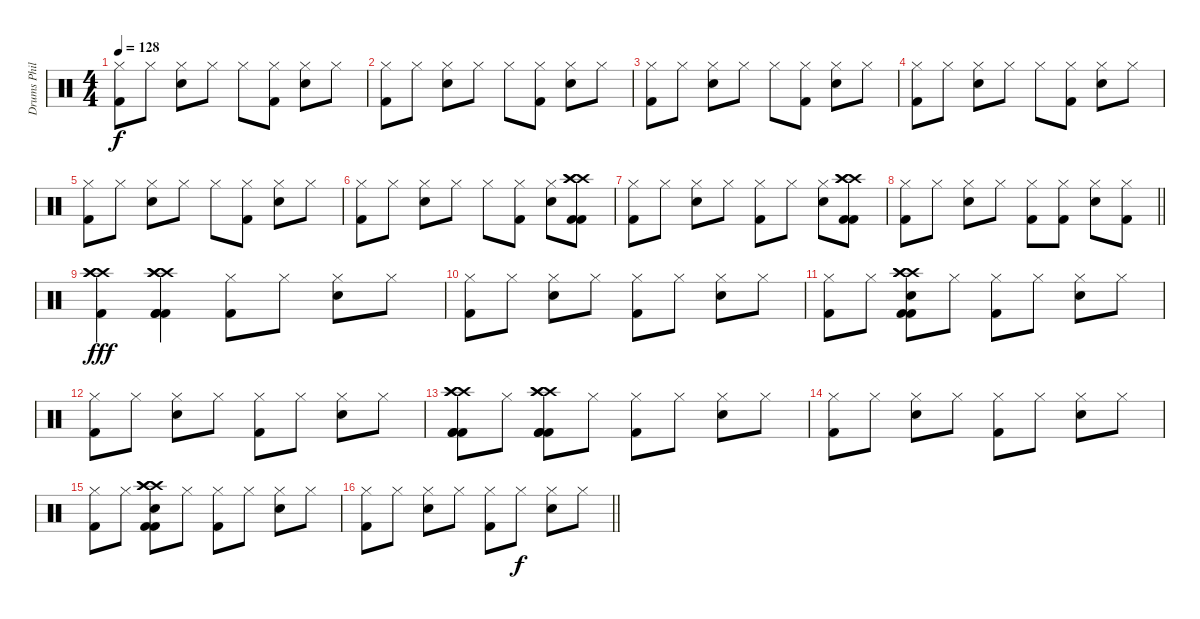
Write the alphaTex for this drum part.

\track ("Drums Phil Rudd" "Drums Phil") {instrument percussion}
\staff {score}
\articulation defaults
\ts (4 4)
\tempo 128
\clef neutral
\ks c
("Hi-Hat (closed)" "Kick (hit) 2").8{dy f} "Hi-Hat (closed)".8 ("Hi-Hat (closed)" "Electric Snare (hit)").8 "Hi-Hat (closed)".8 "Hi-Hat (closed)".8 ("Hi-Hat (closed)" "Kick (hit) 2").8 ("Hi-Hat (closed)" "Electric Snare (hit)").8 "Hi-Hat (closed)".8 |
("Hi-Hat (closed)" "Kick (hit) 2").8 "Hi-Hat (closed)".8 ("Hi-Hat (closed)" "Electric Snare (hit)").8 "Hi-Hat (closed)".8 "Hi-Hat (closed)".8 ("Hi-Hat (closed)" "Kick (hit) 2").8 ("Hi-Hat (closed)" "Electric Snare (hit)").8 "Hi-Hat (closed)".8 |
("Hi-Hat (closed)" "Kick (hit) 2").8 "Hi-Hat (closed)".8 ("Hi-Hat (closed)" "Electric Snare (hit)").8 "Hi-Hat (closed)".8 "Hi-Hat (closed)".8 ("Hi-Hat (closed)" "Kick (hit) 2").8 ("Hi-Hat (closed)" "Electric Snare (hit)").8 "Hi-Hat (closed)".8 |
("Hi-Hat (closed)" "Kick (hit) 2").8 "Hi-Hat (closed)".8 ("Hi-Hat (closed)" "Electric Snare (hit)").8 "Hi-Hat (closed)".8 "Hi-Hat (closed)".8 ("Hi-Hat (closed)" "Kick (hit) 2").8 ("Hi-Hat (closed)" "Electric Snare (hit)").8 "Hi-Hat (closed)".8 |
("Hi-Hat (closed)" "Kick (hit) 2").8 "Hi-Hat (closed)".8 ("Hi-Hat (closed)" "Electric Snare (hit)").8 "Hi-Hat (closed)".8 "Hi-Hat (closed)".8 ("Hi-Hat (closed)" "Kick (hit) 2").8 ("Hi-Hat (closed)" "Electric Snare (hit)").8 "Hi-Hat (closed)".8 |
("Hi-Hat (closed)" "Kick (hit) 2").8 "Hi-Hat (closed)".8 ("Hi-Hat (closed)" "Electric Snare (hit)").8 "Hi-Hat (closed)".8 "Hi-Hat (closed)".8 ("Hi-Hat (closed)" "Kick (hit) 2").8 ("Hi-Hat (closed)" "Electric Snare (hit)").8 ("Crash high (hit)" "Crash high (hit)" "Crash high (hit)" "Kick (hit) 2" "Kick (hit) 2").8 |
("Hi-Hat (closed)" "Kick (hit) 2").8 "Hi-Hat (closed)".8 ("Hi-Hat (closed)" "Electric Snare (hit)").8 "Hi-Hat (closed)".8 ("Hi-Hat (closed)" "Kick (hit) 2").8 "Hi-Hat (closed)".8 ("Hi-Hat (closed)" "Electric Snare (hit)").8 ("Crash high (hit)" "Crash high (hit)" "Crash high (hit)" "Kick (hit) 2" "Kick (hit) 2").8 |
\barLineRight lightlight
("Hi-Hat (closed)" "Kick (hit) 2").8 "Hi-Hat (closed)".8 ("Hi-Hat (closed)" "Electric Snare (hit)").8 "Hi-Hat (closed)".8 ("Hi-Hat (closed)" "Kick (hit) 2").8 ("Hi-Hat (closed)" "Kick (hit) 2").8 ("Hi-Hat (closed)" "Electric Snare (hit)").8 ("Hi-Hat (closed)" "Kick (hit) 2").8 |
("Crash high (hit)" "Crash high (hit)" "Crash high (hit)" "Kick (hit) 2").4{dy fff} ("Crash high (hit)" "Crash high (hit)" "Crash high (hit)" "Kick (hit) 2" "Kick (hit) 2" "Kick (hit) 2").4 ("Hi-Hat (closed)" "Kick (hit) 2").8 "Hi-Hat (closed)".8 ("Hi-Hat (closed)" "Electric Snare (hit)").8 "Hi-Hat (closed)".8 |
("Hi-Hat (closed)" "Kick (hit) 2").8 "Hi-Hat (closed)".8 ("Hi-Hat (closed)" "Electric Snare (hit)").8 "Hi-Hat (closed)".8 ("Hi-Hat (closed)" "Kick (hit) 2").8 "Hi-Hat (closed)".8 ("Hi-Hat (closed)" "Electric Snare (hit)").8 "Hi-Hat (closed)".8 |
("Hi-Hat (closed)" "Kick (hit) 2").8 "Hi-Hat (closed)".8 ("Crash high (hit)" "Crash high (hit)" "Crash high (hit)" "Electric Snare (hit)" "Kick (hit) 2" "Kick (hit) 2").8 "Hi-Hat (closed)".8 ("Hi-Hat (closed)" "Kick (hit) 2").8 "Hi-Hat (closed)".8 ("Hi-Hat (closed)" "Electric Snare (hit)").8 "Hi-Hat (closed)".8 |
("Hi-Hat (closed)" "Kick (hit) 2").8 "Hi-Hat (closed)".8 ("Hi-Hat (closed)" "Electric Snare (hit)").8 "Hi-Hat (closed)".8 ("Hi-Hat (closed)" "Kick (hit) 2").8 "Hi-Hat (closed)".8 ("Hi-Hat (closed)" "Electric Snare (hit)").8 "Hi-Hat (closed)".8 |
("Crash high (hit)" "Crash high (hit)" "Crash high (hit)" "Kick (hit) 2" "Kick (hit) 2" "Kick (hit) 2").8 "Hi-Hat (closed)".8 ("Crash high (hit)" "Crash high (hit)" "Crash high (hit)" "Kick (hit) 2" "Kick (hit) 2" "Kick (hit) 2").8 "Hi-Hat (closed)".8 ("Hi-Hat (closed)" "Kick (hit) 2").8 "Hi-Hat (closed)".8 ("Hi-Hat (closed)" "Electric Snare (hit)").8 "Hi-Hat (closed)".8 |
("Hi-Hat (closed)" "Kick (hit) 2").8 "Hi-Hat (closed)".8 ("Hi-Hat (closed)" "Electric Snare (hit)").8 "Hi-Hat (closed)".8 ("Hi-Hat (closed)" "Kick (hit) 2").8 "Hi-Hat (closed)".8 ("Hi-Hat (closed)" "Electric Snare (hit)").8 "Hi-Hat (closed)".8 |
("Hi-Hat (closed)" "Kick (hit) 2").8 "Hi-Hat (closed)".8 ("Crash high (hit)" "Crash high (hit)" "Crash high (hit)" "Electric Snare (hit)" "Kick (hit) 2" "Kick (hit) 2").8 "Hi-Hat (closed)".8 ("Hi-Hat (closed)" "Kick (hit) 2").8 "Hi-Hat (closed)".8 ("Hi-Hat (closed)" "Electric Snare (hit)").8 "Hi-Hat (closed)".8 |
\barLineRight lightlight
("Hi-Hat (closed)" "Kick (hit) 2").8 "Hi-Hat (closed)".8 ("Hi-Hat (closed)" "Electric Snare (hit)").8 "Hi-Hat (closed)".8 ("Hi-Hat (closed)" "Kick (hit) 2").8 "Hi-Hat (closed)".8{dy f} ("Hi-Hat (closed)" "Electric Snare (hit)").8 "Hi-Hat (closed)".8
